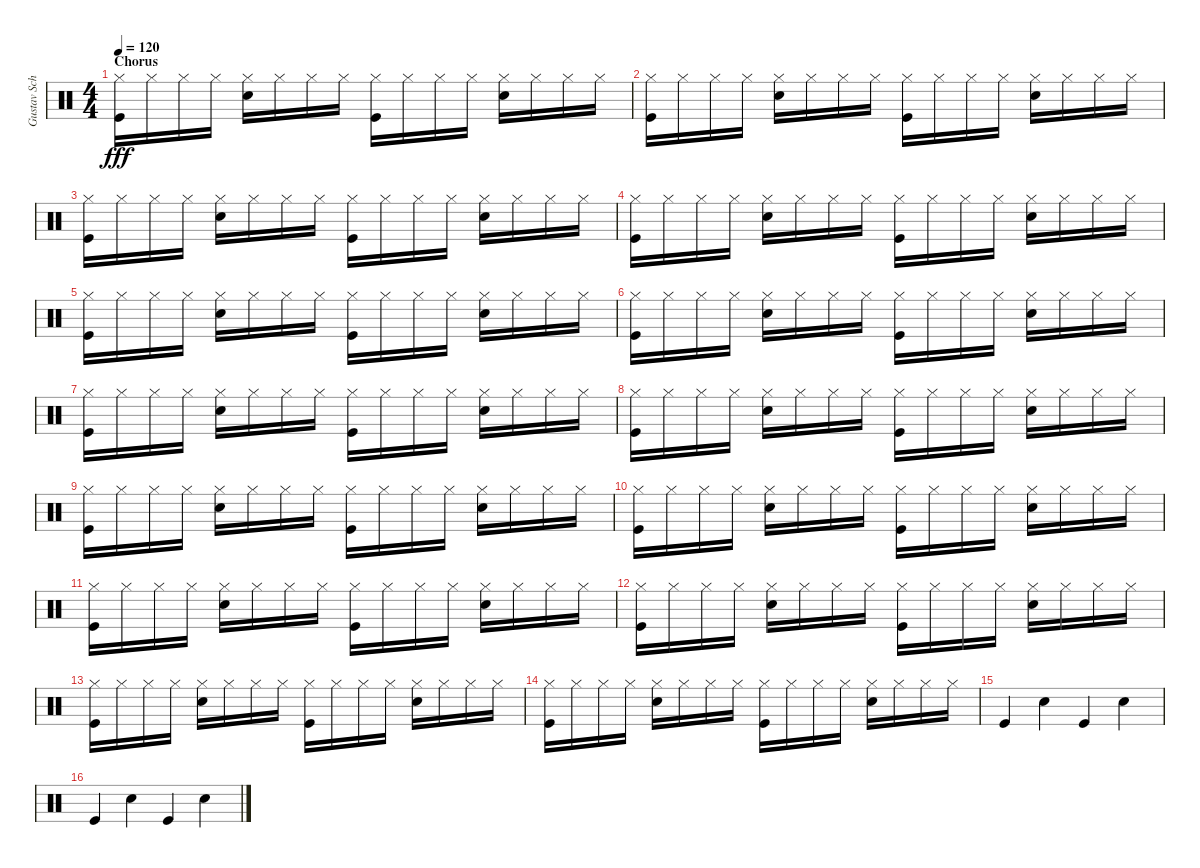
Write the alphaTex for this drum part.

\track ("Gustav Schäfer" "Gustav Sch") {instrument percussion}
\staff {score}
\articulation defaults
\ts (4 4)
\section ("" "Chorus")
\tempo 120
\clef neutral
\ks c
("Hi-Hat (closed)" "Kick (hit)").16{dy fff} "Hi-Hat (closed)".16 "Hi-Hat (closed)".16 "Hi-Hat (closed)".16 ("Hi-Hat (closed)" "Snare (hit) 2").16 "Hi-Hat (closed)".16 "Hi-Hat (closed)".16 "Hi-Hat (closed)".16 ("Hi-Hat (closed)" "Kick (hit)").16 "Hi-Hat (closed)".16 "Hi-Hat (closed)".16 "Hi-Hat (closed)".16 ("Hi-Hat (closed)" "Snare (hit) 2").16 "Hi-Hat (closed)".16 "Hi-Hat (closed)".16 "Hi-Hat (closed)".16 |
("Hi-Hat (closed)" "Kick (hit)").16 "Hi-Hat (closed)".16 "Hi-Hat (closed)".16 "Hi-Hat (closed)".16 ("Hi-Hat (closed)" "Snare (hit) 2").16 "Hi-Hat (closed)".16 "Hi-Hat (closed)".16 "Hi-Hat (closed)".16 ("Hi-Hat (closed)" "Kick (hit)").16 "Hi-Hat (closed)".16 "Hi-Hat (closed)".16 "Hi-Hat (closed)".16 ("Hi-Hat (closed)" "Snare (hit) 2").16 "Hi-Hat (closed)".16 "Hi-Hat (closed)".16 "Hi-Hat (closed)".16 |
("Hi-Hat (closed)" "Kick (hit)").16 "Hi-Hat (closed)".16 "Hi-Hat (closed)".16 "Hi-Hat (closed)".16 ("Hi-Hat (closed)" "Snare (hit) 2").16 "Hi-Hat (closed)".16 "Hi-Hat (closed)".16 "Hi-Hat (closed)".16 ("Hi-Hat (closed)" "Kick (hit)").16 "Hi-Hat (closed)".16 "Hi-Hat (closed)".16 "Hi-Hat (closed)".16 ("Hi-Hat (closed)" "Snare (hit) 2").16 "Hi-Hat (closed)".16 "Hi-Hat (closed)".16 "Hi-Hat (closed)".16 |
("Hi-Hat (closed)" "Kick (hit)").16 "Hi-Hat (closed)".16 "Hi-Hat (closed)".16 "Hi-Hat (closed)".16 ("Hi-Hat (closed)" "Snare (hit) 2").16 "Hi-Hat (closed)".16 "Hi-Hat (closed)".16 "Hi-Hat (closed)".16 ("Hi-Hat (closed)" "Kick (hit)").16 "Hi-Hat (closed)".16 "Hi-Hat (closed)".16 "Hi-Hat (closed)".16 ("Hi-Hat (closed)" "Snare (hit) 2").16 "Hi-Hat (closed)".16 "Hi-Hat (closed)".16 "Hi-Hat (closed)".16 |
("Hi-Hat (closed)" "Kick (hit)").16 "Hi-Hat (closed)".16 "Hi-Hat (closed)".16 "Hi-Hat (closed)".16 ("Hi-Hat (closed)" "Snare (hit) 2").16 "Hi-Hat (closed)".16 "Hi-Hat (closed)".16 "Hi-Hat (closed)".16 ("Hi-Hat (closed)" "Kick (hit)").16 "Hi-Hat (closed)".16 "Hi-Hat (closed)".16 "Hi-Hat (closed)".16 ("Hi-Hat (closed)" "Snare (hit) 2").16 "Hi-Hat (closed)".16 "Hi-Hat (closed)".16 "Hi-Hat (closed)".16 |
("Hi-Hat (closed)" "Kick (hit)").16 "Hi-Hat (closed)".16 "Hi-Hat (closed)".16 "Hi-Hat (closed)".16 ("Hi-Hat (closed)" "Snare (hit) 2").16 "Hi-Hat (closed)".16 "Hi-Hat (closed)".16 "Hi-Hat (closed)".16 ("Hi-Hat (closed)" "Kick (hit)").16 "Hi-Hat (closed)".16 "Hi-Hat (closed)".16 "Hi-Hat (closed)".16 ("Hi-Hat (closed)" "Snare (hit) 2").16 "Hi-Hat (closed)".16 "Hi-Hat (closed)".16 "Hi-Hat (closed)".16 |
("Hi-Hat (closed)" "Kick (hit)").16 "Hi-Hat (closed)".16 "Hi-Hat (closed)".16 "Hi-Hat (closed)".16 ("Hi-Hat (closed)" "Snare (hit) 2").16 "Hi-Hat (closed)".16 "Hi-Hat (closed)".16 "Hi-Hat (closed)".16 ("Hi-Hat (closed)" "Kick (hit)").16 "Hi-Hat (closed)".16 "Hi-Hat (closed)".16 "Hi-Hat (closed)".16 ("Hi-Hat (closed)" "Snare (hit) 2").16 "Hi-Hat (closed)".16 "Hi-Hat (closed)".16 "Hi-Hat (closed)".16 |
("Hi-Hat (closed)" "Kick (hit)").16 "Hi-Hat (closed)".16 "Hi-Hat (closed)".16 "Hi-Hat (closed)".16 ("Hi-Hat (closed)" "Snare (hit) 2").16 "Hi-Hat (closed)".16 "Hi-Hat (closed)".16 "Hi-Hat (closed)".16 ("Hi-Hat (closed)" "Kick (hit)").16 "Hi-Hat (closed)".16 "Hi-Hat (closed)".16 "Hi-Hat (closed)".16 ("Hi-Hat (closed)" "Snare (hit) 2").16 "Hi-Hat (closed)".16 "Hi-Hat (closed)".16 "Hi-Hat (closed)".16 |
("Hi-Hat (closed)" "Kick (hit)").16 "Hi-Hat (closed)".16 "Hi-Hat (closed)".16 "Hi-Hat (closed)".16 ("Hi-Hat (closed)" "Snare (hit) 2").16 "Hi-Hat (closed)".16 "Hi-Hat (closed)".16 "Hi-Hat (closed)".16 ("Hi-Hat (closed)" "Kick (hit)").16 "Hi-Hat (closed)".16 "Hi-Hat (closed)".16 "Hi-Hat (closed)".16 ("Hi-Hat (closed)" "Snare (hit) 2").16 "Hi-Hat (closed)".16 "Hi-Hat (closed)".16 "Hi-Hat (closed)".16 |
("Hi-Hat (closed)" "Kick (hit)").16 "Hi-Hat (closed)".16 "Hi-Hat (closed)".16 "Hi-Hat (closed)".16 ("Hi-Hat (closed)" "Snare (hit) 2").16 "Hi-Hat (closed)".16 "Hi-Hat (closed)".16 "Hi-Hat (closed)".16 ("Hi-Hat (closed)" "Kick (hit)").16 "Hi-Hat (closed)".16 "Hi-Hat (closed)".16 "Hi-Hat (closed)".16 ("Hi-Hat (closed)" "Snare (hit) 2").16 "Hi-Hat (closed)".16 "Hi-Hat (closed)".16 "Hi-Hat (closed)".16 |
("Hi-Hat (closed)" "Kick (hit)").16 "Hi-Hat (closed)".16 "Hi-Hat (closed)".16 "Hi-Hat (closed)".16 ("Hi-Hat (closed)" "Snare (hit) 2").16 "Hi-Hat (closed)".16 "Hi-Hat (closed)".16 "Hi-Hat (closed)".16 ("Hi-Hat (closed)" "Kick (hit)").16 "Hi-Hat (closed)".16 "Hi-Hat (closed)".16 "Hi-Hat (closed)".16 ("Hi-Hat (closed)" "Snare (hit) 2").16 "Hi-Hat (closed)".16 "Hi-Hat (closed)".16 "Hi-Hat (closed)".16 |
("Hi-Hat (closed)" "Kick (hit)").16 "Hi-Hat (closed)".16 "Hi-Hat (closed)".16 "Hi-Hat (closed)".16 ("Hi-Hat (closed)" "Snare (hit) 2").16 "Hi-Hat (closed)".16 "Hi-Hat (closed)".16 "Hi-Hat (closed)".16 ("Hi-Hat (closed)" "Kick (hit)").16 "Hi-Hat (closed)".16 "Hi-Hat (closed)".16 "Hi-Hat (closed)".16 ("Hi-Hat (closed)" "Snare (hit) 2").16 "Hi-Hat (closed)".16 "Hi-Hat (closed)".16 "Hi-Hat (closed)".16 |
("Hi-Hat (closed)" "Kick (hit)").16 "Hi-Hat (closed)".16 "Hi-Hat (closed)".16 "Hi-Hat (closed)".16 ("Hi-Hat (closed)" "Snare (hit) 2").16 "Hi-Hat (closed)".16 "Hi-Hat (closed)".16 "Hi-Hat (closed)".16 ("Hi-Hat (closed)" "Kick (hit)").16 "Hi-Hat (closed)".16 "Hi-Hat (closed)".16 "Hi-Hat (closed)".16 ("Hi-Hat (closed)" "Snare (hit) 2").16 "Hi-Hat (closed)".16 "Hi-Hat (closed)".16 "Hi-Hat (closed)".16 |
("Hi-Hat (closed)" "Kick (hit)").16 "Hi-Hat (closed)".16 "Hi-Hat (closed)".16 "Hi-Hat (closed)".16 ("Hi-Hat (closed)" "Snare (hit) 2").16 "Hi-Hat (closed)".16 "Hi-Hat (closed)".16 "Hi-Hat (closed)".16 ("Hi-Hat (closed)" "Kick (hit)").16 "Hi-Hat (closed)".16 "Hi-Hat (closed)".16 "Hi-Hat (closed)".16 ("Hi-Hat (closed)" "Snare (hit) 2").16 "Hi-Hat (closed)".16 "Hi-Hat (closed)".16 "Hi-Hat (closed)".16 |
"Kick (hit)".4 "Snare (hit) 2".4 "Kick (hit)".4 "Snare (hit) 2".4 |
"Kick (hit)".4 "Snare (hit) 2".4 "Kick (hit)".4 "Snare (hit) 2".4
